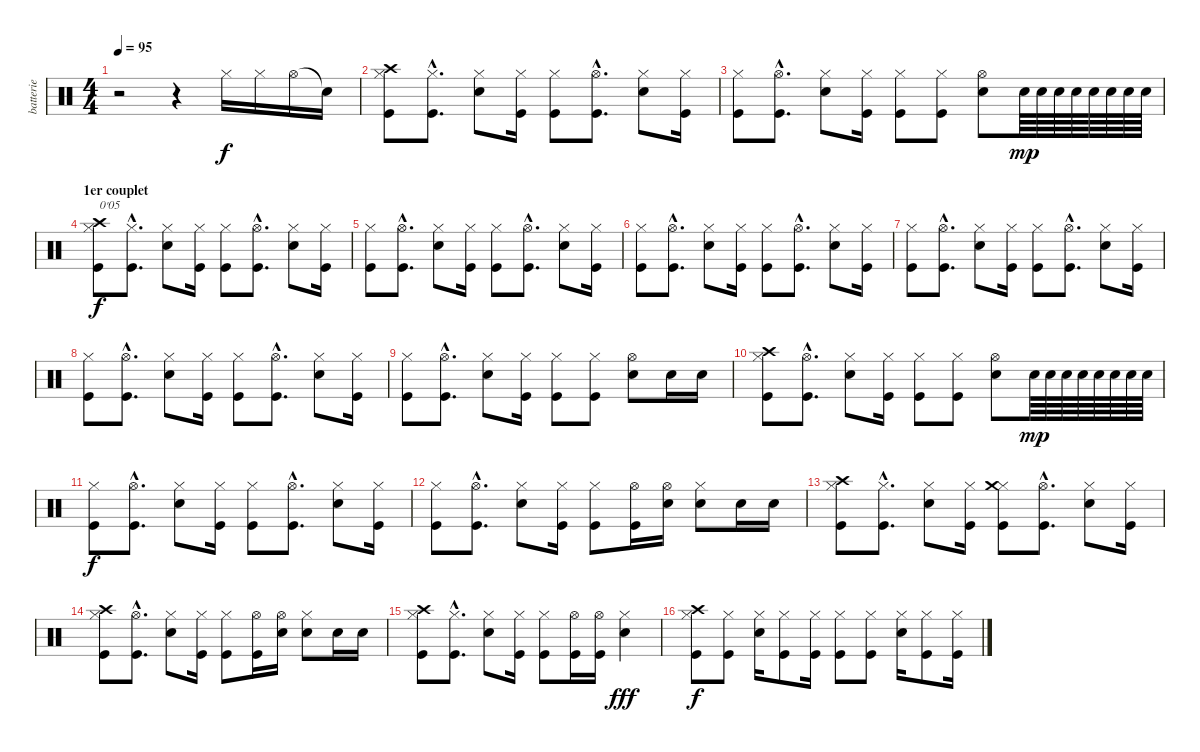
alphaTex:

\track ("batterie" "batterie") {instrument percussion}
\staff {score}
\articulation defaults
\ts (4 4)
\tempo 95
\clef neutral
\ks c
r.2{dy f} r.4 "Hi-Hat (closed)".16 "Hi-Hat (closed)".16 "Hi-Hat (open)".16 "Snare (hit)"{t}.16 |
("Hi-Hat (closed)" "Kick (hit)" "Crash high (hit)").8 ("Hi-Hat (closed)"{hac} "Kick (hit)"{hac}).8{d} ("Hi-Hat (closed)" "Electric Snare (hit)").8 ("Hi-Hat (closed)" "Kick (hit)").16 ("Hi-Hat (closed)" "Kick (hit)").8 ("Hi-Hat (open)"{hac} "Kick (hit)"{hac}).8{d} ("Hi-Hat (closed)" "Electric Snare (hit)").8 ("Hi-Hat (closed)" "Kick (hit)").16 |
("Hi-Hat (closed)" "Kick (hit)").8 ("Hi-Hat (open)"{hac} "Kick (hit)"{hac}).8{d} ("Hi-Hat (closed)" "Electric Snare (hit)").8 ("Hi-Hat (closed)" "Kick (hit)").16 ("Hi-Hat (closed)" "Kick (hit)").8 ("Hi-Hat (closed)" "Kick (hit)").8 ("Hi-Hat (open)" "Electric Snare (hit)").8 "Electric Snare (hit)".64{dy mp} "Electric Snare (hit)".64 "Electric Snare (hit)".64 "Electric Snare (hit)".64 "Electric Snare (hit)".64 "Electric Snare (hit)".64 "Electric Snare (hit)".64 "Electric Snare (hit)".64 |
\section ("" "1er couplet")
("Hi-Hat (closed)" "Kick (hit)" "Crash high (hit)").8{txt "0'05" dy f} ("Hi-Hat (closed)"{hac} "Kick (hit)"{hac}).8{d} ("Hi-Hat (closed)" "Electric Snare (hit)").8 ("Hi-Hat (closed)" "Kick (hit)").16 ("Hi-Hat (closed)" "Kick (hit)").8 ("Hi-Hat (open)"{hac} "Kick (hit)"{hac}).8{d} ("Hi-Hat (closed)" "Electric Snare (hit)").8 ("Hi-Hat (closed)" "Kick (hit)").16 |
("Hi-Hat (closed)" "Kick (hit)").8 ("Hi-Hat (open)"{hac} "Kick (hit)"{hac}).8{d} ("Hi-Hat (closed)" "Electric Snare (hit)").8 ("Hi-Hat (closed)" "Kick (hit)").16 ("Hi-Hat (closed)" "Kick (hit)").8 ("Hi-Hat (open)"{hac} "Kick (hit)"{hac}).8{d} ("Hi-Hat (closed)" "Electric Snare (hit)").8 ("Hi-Hat (closed)" "Kick (hit)").16 |
("Hi-Hat (closed)" "Kick (hit)").8 ("Hi-Hat (open)"{hac} "Kick (hit)"{hac}).8{d} ("Hi-Hat (closed)" "Electric Snare (hit)").8 ("Hi-Hat (closed)" "Kick (hit)").16 ("Hi-Hat (closed)" "Kick (hit)").8 ("Hi-Hat (open)"{hac} "Kick (hit)"{hac}).8{d} ("Hi-Hat (closed)" "Electric Snare (hit)").8 ("Hi-Hat (closed)" "Kick (hit)").16 |
("Hi-Hat (closed)" "Kick (hit)").8 ("Hi-Hat (open)"{hac} "Kick (hit)"{hac}).8{d} ("Hi-Hat (closed)" "Electric Snare (hit)").8 ("Hi-Hat (closed)" "Kick (hit)").16 ("Hi-Hat (closed)" "Kick (hit)").8 ("Hi-Hat (open)"{hac} "Kick (hit)"{hac}).8{d} ("Hi-Hat (closed)" "Electric Snare (hit)").8 ("Hi-Hat (closed)" "Kick (hit)").16 |
("Hi-Hat (closed)" "Kick (hit)").8 ("Hi-Hat (open)"{hac} "Kick (hit)"{hac}).8{d} ("Hi-Hat (closed)" "Electric Snare (hit)").8 ("Hi-Hat (closed)" "Kick (hit)").16 ("Hi-Hat (closed)" "Kick (hit)").8 ("Hi-Hat (open)"{hac} "Kick (hit)"{hac}).8{d} ("Hi-Hat (closed)" "Electric Snare (hit)").8 ("Hi-Hat (closed)" "Kick (hit)").16 |
("Hi-Hat (closed)" "Kick (hit)").8 ("Hi-Hat (open)"{hac} "Kick (hit)"{hac}).8{d} ("Hi-Hat (closed)" "Electric Snare (hit)").8 ("Hi-Hat (closed)" "Kick (hit)").16 ("Hi-Hat (closed)" "Kick (hit)").8 ("Hi-Hat (closed)" "Kick (hit)").8 ("Hi-Hat (open)" "Electric Snare (hit)").8 "Electric Snare (hit)".16 "Electric Snare (hit)".16 |
("Hi-Hat (closed)" "Kick (hit)" "Crash high (hit)").8 ("Hi-Hat (open)"{hac} "Kick (hit)"{hac}).8{d} ("Hi-Hat (closed)" "Electric Snare (hit)").8 ("Hi-Hat (closed)" "Kick (hit)").16 ("Hi-Hat (closed)" "Kick (hit)").8 ("Hi-Hat (closed)" "Kick (hit)").8 ("Hi-Hat (open)" "Electric Snare (hit)").8 "Electric Snare (hit)".64{dy mp} "Electric Snare (hit)".64 "Electric Snare (hit)".64 "Electric Snare (hit)".64 "Electric Snare (hit)".64 "Electric Snare (hit)".64 "Electric Snare (hit)".64 "Electric Snare (hit)".64 |
("Hi-Hat (closed)" "Kick (hit)").8{dy f} ("Hi-Hat (open)"{hac} "Kick (hit)"{hac}).8{d} ("Hi-Hat (closed)" "Electric Snare (hit)").8 ("Hi-Hat (closed)" "Kick (hit)").16 ("Hi-Hat (closed)" "Kick (hit)").8 ("Hi-Hat (open)"{hac} "Kick (hit)"{hac}).8{d} ("Hi-Hat (closed)" "Electric Snare (hit)").8 ("Hi-Hat (closed)" "Kick (hit)").16 |
("Hi-Hat (closed)" "Kick (hit)").8 ("Hi-Hat (open)"{hac} "Kick (hit)"{hac}).8{d} ("Hi-Hat (closed)" "Electric Snare (hit)").8 ("Hi-Hat (closed)" "Kick (hit)").16 ("Hi-Hat (closed)" "Kick (hit)").8 ("Hi-Hat (open)" "Kick (hit)").16 ("Hi-Hat (open)" "Electric Snare (hit)").16 ("Hi-Hat (closed)" "Electric Snare (hit)").8 "Electric Snare (hit)".16 "Electric Snare (hit)".16 |
("Hi-Hat (closed)" "Kick (hit)" "Crash high (hit)").8 ("Hi-Hat (closed)"{hac} "Kick (hit)"{hac}).8{d} ("Hi-Hat (closed)" "Electric Snare (hit)").8 ("Hi-Hat (closed)" "Kick (hit)").16 ("Hi-Hat (closed)" "Kick (hit)" "Crash medium (hit)").8 ("Hi-Hat (open)"{hac} "Kick (hit)"{hac}).8{d} ("Hi-Hat (closed)" "Electric Snare (hit)").8 ("Hi-Hat (closed)" "Kick (hit)").16 |
("Hi-Hat (closed)" "Kick (hit)" "Crash high (hit)").8 ("Hi-Hat (open)"{hac} "Kick (hit)"{hac}).8{d} ("Hi-Hat (closed)" "Electric Snare (hit)").8 ("Hi-Hat (closed)" "Kick (hit)").16 ("Hi-Hat (closed)" "Kick (hit)").8 ("Hi-Hat (open)" "Kick (hit)").16 ("Hi-Hat (open)" "Electric Snare (hit)").16 ("Hi-Hat (closed)" "Electric Snare (hit)").8 "Electric Snare (hit)".16 "Electric Snare (hit)".16 |
("Hi-Hat (closed)" "Kick (hit)" "Crash high (hit)").8 ("Hi-Hat (closed)"{hac} "Kick (hit)"{hac}).8{d} ("Hi-Hat (closed)" "Electric Snare (hit)").8 ("Hi-Hat (closed)" "Kick (hit)").16 ("Hi-Hat (closed)" "Kick (hit)").8 ("Hi-Hat (open)" "Kick (hit)").16 ("Hi-Hat (open)" "Kick (hit)").16 ("Hi-Hat (closed)" "Electric Snare (hit)").4{dy fff} |
("Hi-Hat (closed)" "Kick (hit)" "Crash high (hit)").8{dy f} ("Hi-Hat (closed)" "Kick (hit)").8 ("Hi-Hat (closed)" "Electric Snare (hit)").16 ("Hi-Hat (closed)" "Kick (hit)").8 ("Hi-Hat (closed)" "Kick (hit)").16 ("Hi-Hat (closed)" "Kick (hit)").8 ("Hi-Hat (closed)" "Kick (hit)").8 ("Hi-Hat (closed)" "Electric Snare (hit)").16 ("Hi-Hat (closed)" "Kick (hit)").8 ("Hi-Hat (closed)" "Kick (hit)").16
